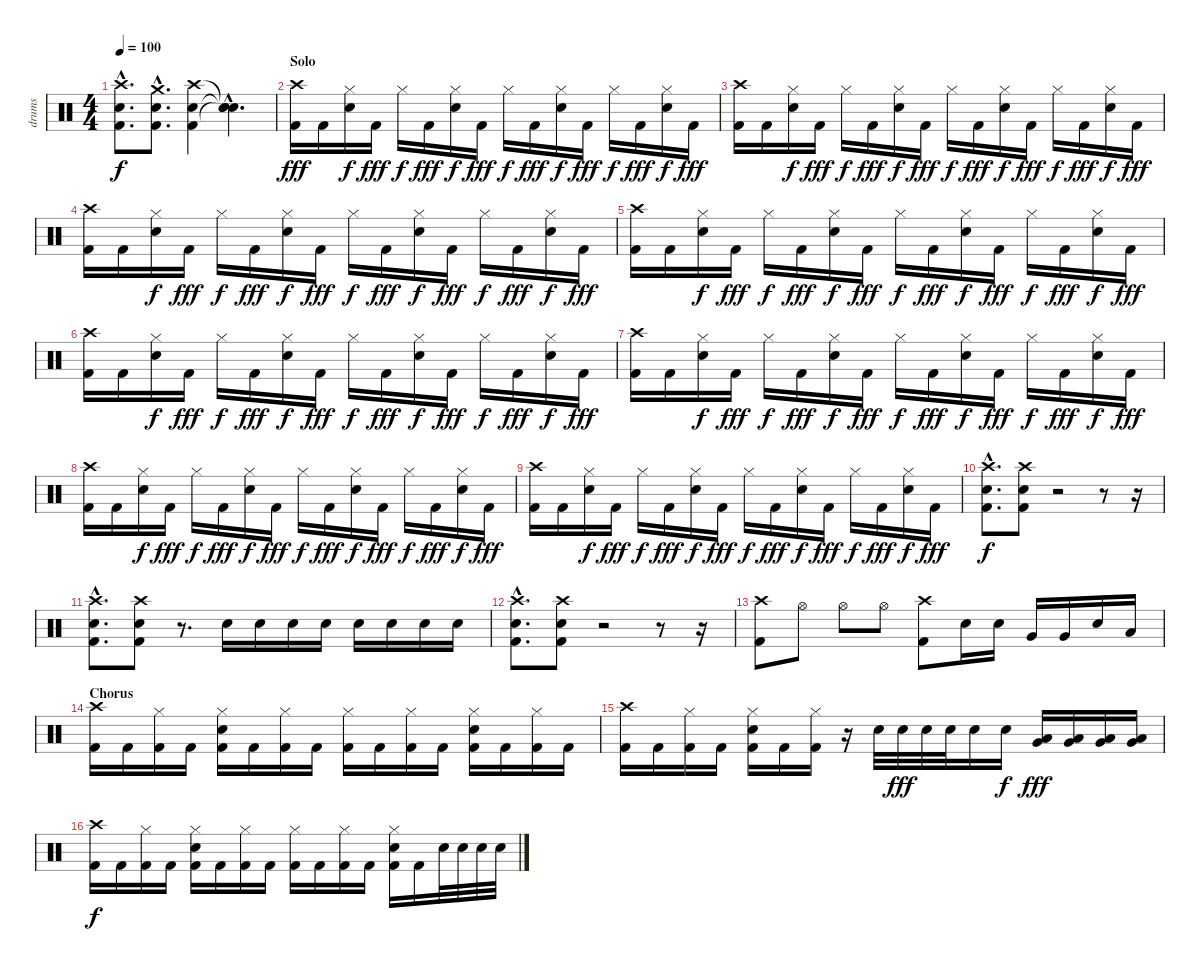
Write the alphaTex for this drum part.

\track ("drums" "drums") {instrument percussion}
\staff {score}
\articulation defaults
\ts (4 4)
\tempo 100
\clef neutral
\ks c
("Crash high (hit)"{hac} "Snare (hit) 2"{hac} "Kick (hit) 2"{hac}).8{d dy f} ("Crash medium (hit)"{hac} "Snare (hit) 2"{hac} "Kick (hit) 2"{hac}).8{d} ("Crash high (hit)" "Snare (hit) 2" "Kick (hit) 2").4 ("Snare (hit)"{hac t} "Snare (hit)"{hac t} "Snare (hit)"{hac t}).4{d} |
\section ("" "Solo")
("Crash high (hit)" "Kick (hit) 2").16{dy fff} "Kick (hit) 2".16 ("Hi-Hat (closed)" "Snare (hit) 2").16{dy f} "Kick (hit) 2".16{dy fff} "Hi-Hat (closed)".16{dy f} "Kick (hit) 2".16{dy fff} ("Hi-Hat (closed)" "Snare (hit) 2").16{dy f} "Kick (hit) 2".16{dy fff} "Hi-Hat (closed)".16{dy f} "Kick (hit) 2".16{dy fff} ("Hi-Hat (closed)" "Snare (hit) 2").16{dy f} "Kick (hit) 2".16{dy fff} "Hi-Hat (closed)".16{dy f} "Kick (hit) 2".16{dy fff} ("Hi-Hat (closed)" "Snare (hit) 2").16{dy f} "Kick (hit) 2".16{dy fff} |
("Crash high (hit)" "Kick (hit) 2").16 "Kick (hit) 2".16 ("Hi-Hat (closed)" "Snare (hit) 2").16{dy f} "Kick (hit) 2".16{dy fff} "Hi-Hat (closed)".16{dy f} "Kick (hit) 2".16{dy fff} ("Hi-Hat (closed)" "Snare (hit) 2").16{dy f} "Kick (hit) 2".16{dy fff} "Hi-Hat (closed)".16{dy f} "Kick (hit) 2".16{dy fff} ("Hi-Hat (closed)" "Snare (hit) 2").16{dy f} "Kick (hit) 2".16{dy fff} "Hi-Hat (closed)".16{dy f} "Kick (hit) 2".16{dy fff} ("Hi-Hat (closed)" "Snare (hit) 2").16{dy f} "Kick (hit) 2".16{dy fff} |
("Crash high (hit)" "Kick (hit) 2").16 "Kick (hit) 2".16 ("Hi-Hat (closed)" "Snare (hit) 2").16{dy f} "Kick (hit) 2".16{dy fff} "Hi-Hat (closed)".16{dy f} "Kick (hit) 2".16{dy fff} ("Hi-Hat (closed)" "Snare (hit) 2").16{dy f} "Kick (hit) 2".16{dy fff} "Hi-Hat (closed)".16{dy f} "Kick (hit) 2".16{dy fff} ("Hi-Hat (closed)" "Snare (hit) 2").16{dy f} "Kick (hit) 2".16{dy fff} "Hi-Hat (closed)".16{dy f} "Kick (hit) 2".16{dy fff} ("Hi-Hat (closed)" "Snare (hit) 2").16{dy f} "Kick (hit) 2".16{dy fff} |
("Crash high (hit)" "Kick (hit) 2").16 "Kick (hit) 2".16 ("Hi-Hat (closed)" "Snare (hit) 2").16{dy f} "Kick (hit) 2".16{dy fff} "Hi-Hat (closed)".16{dy f} "Kick (hit) 2".16{dy fff} ("Hi-Hat (closed)" "Snare (hit) 2").16{dy f} "Kick (hit) 2".16{dy fff} "Hi-Hat (closed)".16{dy f} "Kick (hit) 2".16{dy fff} ("Hi-Hat (closed)" "Snare (hit) 2").16{dy f} "Kick (hit) 2".16{dy fff} "Hi-Hat (closed)".16{dy f} "Kick (hit) 2".16{dy fff} ("Hi-Hat (closed)" "Snare (hit) 2").16{dy f} "Kick (hit) 2".16{dy fff} |
("Crash high (hit)" "Kick (hit) 2").16 "Kick (hit) 2".16 ("Hi-Hat (closed)" "Snare (hit) 2").16{dy f} "Kick (hit) 2".16{dy fff} "Hi-Hat (closed)".16{dy f} "Kick (hit) 2".16{dy fff} ("Hi-Hat (closed)" "Snare (hit) 2").16{dy f} "Kick (hit) 2".16{dy fff} "Hi-Hat (closed)".16{dy f} "Kick (hit) 2".16{dy fff} ("Hi-Hat (closed)" "Snare (hit) 2").16{dy f} "Kick (hit) 2".16{dy fff} "Hi-Hat (closed)".16{dy f} "Kick (hit) 2".16{dy fff} ("Hi-Hat (closed)" "Snare (hit) 2").16{dy f} "Kick (hit) 2".16{dy fff} |
("Crash high (hit)" "Kick (hit) 2").16 "Kick (hit) 2".16 ("Hi-Hat (closed)" "Snare (hit) 2").16{dy f} "Kick (hit) 2".16{dy fff} "Hi-Hat (closed)".16{dy f} "Kick (hit) 2".16{dy fff} ("Hi-Hat (closed)" "Snare (hit) 2").16{dy f} "Kick (hit) 2".16{dy fff} "Hi-Hat (closed)".16{dy f} "Kick (hit) 2".16{dy fff} ("Hi-Hat (closed)" "Snare (hit) 2").16{dy f} "Kick (hit) 2".16{dy fff} "Hi-Hat (closed)".16{dy f} "Kick (hit) 2".16{dy fff} ("Hi-Hat (closed)" "Snare (hit) 2").16{dy f} "Kick (hit) 2".16{dy fff} |
("Crash high (hit)" "Kick (hit) 2").16 "Kick (hit) 2".16 ("Hi-Hat (closed)" "Snare (hit) 2").16{dy f} "Kick (hit) 2".16{dy fff} "Hi-Hat (closed)".16{dy f} "Kick (hit) 2".16{dy fff} ("Hi-Hat (closed)" "Snare (hit) 2").16{dy f} "Kick (hit) 2".16{dy fff} "Hi-Hat (closed)".16{dy f} "Kick (hit) 2".16{dy fff} ("Hi-Hat (closed)" "Snare (hit) 2").16{dy f} "Kick (hit) 2".16{dy fff} "Hi-Hat (closed)".16{dy f} "Kick (hit) 2".16{dy fff} ("Hi-Hat (closed)" "Snare (hit) 2").16{dy f} "Kick (hit) 2".16{dy fff} |
("Crash high (hit)" "Kick (hit) 2").16 "Kick (hit) 2".16 ("Hi-Hat (closed)" "Snare (hit) 2").16{dy f} "Kick (hit) 2".16{dy fff} "Hi-Hat (closed)".16{dy f} "Kick (hit) 2".16{dy fff} ("Hi-Hat (closed)" "Snare (hit) 2").16{dy f} "Kick (hit) 2".16{dy fff} "Hi-Hat (closed)".16{dy f} "Kick (hit) 2".16{dy fff} ("Hi-Hat (closed)" "Snare (hit) 2").16{dy f} "Kick (hit) 2".16{dy fff} "Hi-Hat (closed)".16{dy f} "Kick (hit) 2".16{dy fff} ("Hi-Hat (closed)" "Snare (hit) 2").16{dy f} "Kick (hit) 2".16{dy fff} |
("Crash high (hit)"{hac} "Snare (hit) 2"{hac} "Kick (hit) 2"{hac}).8{d dy f} ("Crash high (hit)" "Snare (hit) 2" "Kick (hit) 2").8 r.2 r.8 r.16 |
("Crash high (hit)"{hac} "Snare (hit) 2"{hac} "Kick (hit) 2"{hac}).8{d} ("Crash high (hit)" "Snare (hit) 2" "Kick (hit) 2").8 r.8{d} "Snare (hit) 2".16 "Snare (hit) 2".16 "Snare (hit) 2".16 "Snare (hit) 2".16 "Snare (hit) 2".16 "Snare (hit) 2".16 "Snare (hit) 2".16 "Snare (hit) 2".16 |
("Crash high (hit)"{hac} "Snare (hit) 2"{hac} "Kick (hit) 2"{hac}).8{d} ("Crash high (hit)" "Snare (hit) 2" "Kick (hit) 2").8 r.2 r.8 r.16 |
("Crash high (hit)" "Kick (hit) 2").8 "Hi-Hat (open)".8 "Hi-Hat (open)".8 "Hi-Hat (open)".8 ("Crash high (hit)" "Kick (hit) 2").8 "Snare (hit) 2".16 "Snare (hit) 2".16 "Very Low Tom (hit)".16 "Very Low Tom (hit)".16 "Snare (hit) 2".16 "Low Floor Tom (hit)".16 |
\section ("" "Chorus")
("Crash high (hit)" "Kick (hit) 2").16 "Kick (hit) 2".16 ("Hi-Hat (closed)" "Kick (hit) 2").16 "Kick (hit) 2".16 ("Hi-Hat (closed)" "Snare (hit) 2" "Kick (hit) 2").16 "Kick (hit) 2".16 ("Hi-Hat (closed)" "Kick (hit) 2").16 "Kick (hit) 2".16 ("Hi-Hat (closed)" "Kick (hit) 2").16 "Kick (hit) 2".16 ("Hi-Hat (closed)" "Kick (hit) 2").16 "Kick (hit) 2".16 ("Hi-Hat (closed)" "Snare (hit) 2" "Kick (hit) 2").16 "Kick (hit) 2".16 ("Hi-Hat (closed)" "Kick (hit) 2").16 "Kick (hit) 2".16 |
("Crash high (hit)" "Kick (hit) 2").16 "Kick (hit) 2".16 ("Hi-Hat (closed)" "Kick (hit) 2").16 "Kick (hit) 2".16 ("Hi-Hat (closed)" "Snare (hit) 2" "Kick (hit) 2").16 "Kick (hit) 2".16 ("Hi-Hat (closed)" "Kick (hit) 2").16 r.16 "Snare (hit) 2".32 "Snare (hit) 2".32{dy fff} "Snare (hit) 2".32 "Snare (hit) 2".32 "Snare (hit) 2".16 "Snare (hit) 2".16{dy f} ("Low Tom (hit)" "Very Low Tom (hit)").16{dy fff} ("Low Tom (hit)" "Very Low Tom (hit)").16 ("Very Low Tom (hit)" "Low Floor Tom (hit)").16 ("Very Low Tom (hit)" "Low Floor Tom (hit)").16 |
("Crash high (hit)" "Kick (hit) 2").16{dy f} "Kick (hit) 2".16 ("Hi-Hat (closed)" "Kick (hit) 2").16 "Kick (hit) 2".16 ("Hi-Hat (closed)" "Snare (hit) 2" "Kick (hit) 2").16 "Kick (hit) 2".16 ("Hi-Hat (closed)" "Kick (hit) 2").16 "Kick (hit) 2".16 ("Hi-Hat (closed)" "Kick (hit) 2").16 "Kick (hit) 2".16 ("Hi-Hat (closed)" "Kick (hit) 2").16 "Kick (hit) 2".16 ("Hi-Hat (closed)" "Snare (hit) 2" "Kick (hit) 2").16 "Kick (hit) 2".16 "Snare (hit) 2".32 "Snare (hit) 2".32 "Snare (hit) 2".32 "Snare (hit) 2".32
